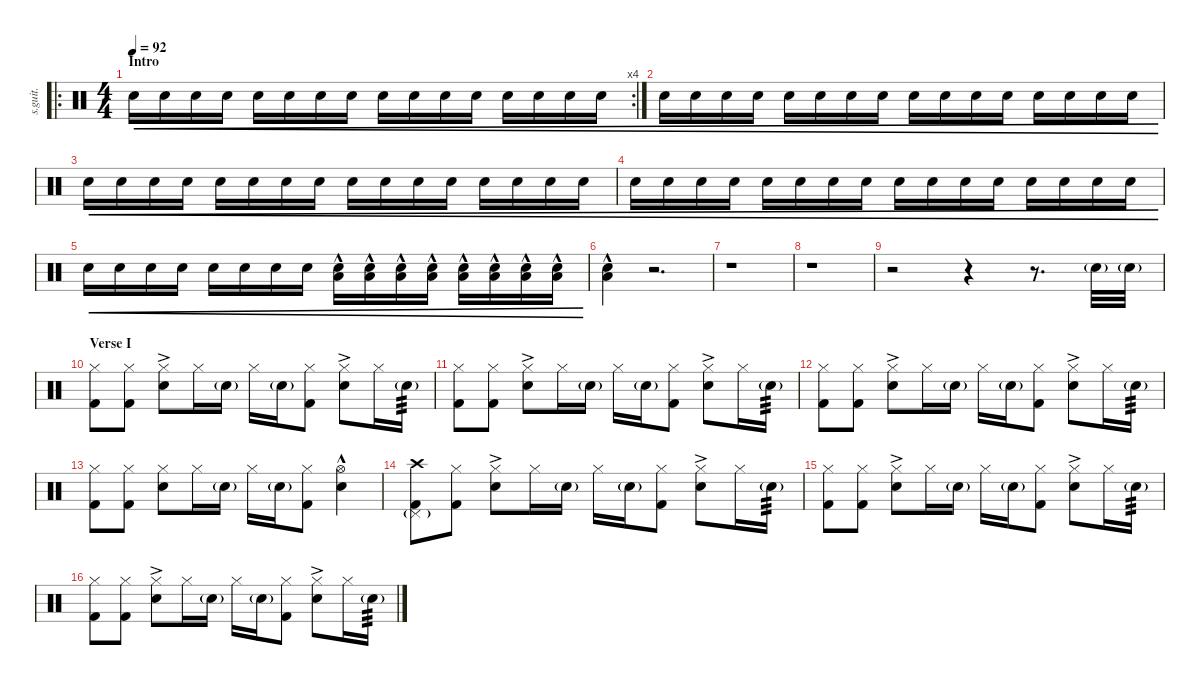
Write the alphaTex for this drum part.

\defaultSystemsLayout 4
\hideDynamics
\bracketExtendMode nobrackets
\track ("Chad Smith | Pearl Masters Series | Drums" "s.guit.") {instrument percussion}
\staff {score}
\articulation defaults
\ro
\rc 4
\ts (4 4)
\beaming (8 2 2 2 2)
\section ("" "Intro")
\tempo 92
\clef neutral
\ks c "Snare (hit) 2".16{cre dy p} "Snare (hit) 2".16{cre} "Snare (hit) 2".16{cre} "Snare (hit) 2".16{cre} "Snare (hit) 2".16{cre} "Snare (hit) 2".16{cre} "Snare (hit) 2".16{cre} "Snare (hit) 2".16{cre} "Snare (hit) 2".16{cre} "Snare (hit) 2".16{cre} "Snare (hit) 2".16{cre} "Snare (hit) 2".16{cre} "Snare (hit) 2".16{cre} "Snare (hit) 2".16{cre} "Snare (hit) 2".16{cre} "Snare (hit) 2".16{cre}
|
"Snare (hit) 2".16{cre} "Snare (hit) 2".16{cre} "Snare (hit) 2".16{cre} "Snare (hit) 2".16{cre} "Snare (hit) 2".16{cre} "Snare (hit) 2".16{cre} "Snare (hit) 2".16{cre} "Snare (hit) 2".16{cre} "Snare (hit) 2".16{cre dy mp} "Snare (hit) 2".16{cre} "Snare (hit) 2".16{cre} "Snare (hit) 2".16{cre} "Snare (hit) 2".16{cre} "Snare (hit) 2".16{cre} "Snare (hit) 2".16{cre} "Snare (hit) 2".16{cre} |
"Snare (hit) 2".16{cre} "Snare (hit) 2".16{cre} "Snare (hit) 2".16{cre} "Snare (hit) 2".16{cre} "Snare (hit) 2".16{cre dy mf} "Snare (hit) 2".16{cre} "Snare (hit) 2".16{cre} "Snare (hit) 2".16{cre} "Snare (hit) 2".16{cre} "Snare (hit) 2".16{cre} "Snare (hit) 2".16{cre} "Snare (hit) 2".16{cre} "Snare (hit) 2".16{cre dy f} "Snare (hit) 2".16{cre} "Snare (hit) 2".16{cre} "Snare (hit) 2".16{cre} |
"Snare (hit) 2".16{cre} "Snare (hit) 2".16{cre} "Snare (hit) 2".16{cre} "Snare (hit) 2".16{cre} "Snare (hit) 2".16{cre} "Snare (hit) 2".16{cre} "Snare (hit) 2".16{cre} "Snare (hit) 2".16{cre} "Snare (hit) 2".16{cre} "Snare (hit) 2".16{cre} "Snare (hit) 2".16{cre} "Snare (hit) 2".16{cre} "Snare (hit) 2".16{cre dy ff} "Snare (hit) 2".16{cre} "Snare (hit) 2".16{cre} "Snare (hit) 2".16{cre} |
"Snare (hit) 2".16{cre} "Snare (hit) 2".16{cre} "Snare (hit) 2".16{cre} "Snare (hit) 2".16{cre} "Snare (hit) 2".16{cre dy fff} "Snare (hit) 2".16{cre} "Snare (hit) 2".16{cre} "Snare (hit) 2".16{cre} ("Snare (hit) 2"{hac} "Low Floor Tom (hit)"{hac}).16{cre} ("Snare (hit) 2"{hac} "Low Floor Tom (hit)"{hac}).16{cre} ("Snare (hit) 2"{hac} "Low Floor Tom (hit)"{hac}).16{cre} ("Snare (hit) 2"{hac} "Low Floor Tom (hit)"{hac}).16{cre} ("Snare (hit) 2"{hac} "Low Floor Tom (hit)"{hac}).16{cre} ("Snare (hit) 2"{hac} "Low Floor Tom (hit)"{hac}).16{cre} ("Snare (hit) 2"{hac} "Low Floor Tom (hit)"{hac}).16{cre} ("Snare (hit) 2"{hac} "Low Floor Tom (hit)"{hac}).16{cre} |
("Snare (hit) 2"{hac} "Low Floor Tom (hit)"{hac}).4 r.2{d} |
r.1 |
r.1 |
r.2 r.4 r.8{d} "Snare (hit) 2"{g}.32 "Snare (hit) 2"{g}.32{dy f} |
\section ("" "Verse I")
("Hi-Hat (closed)" "Kick (hit) 2").8 ("Hi-Hat (closed)" "Kick (hit) 2").8 ("Hi-Hat (closed)" "Snare (hit) 2"{ac}).8 "Hi-Hat (closed)".16 "Snare (hit) 2"{g}.16 "Hi-Hat (closed)".16 "Snare (hit) 2"{g}.16 ("Hi-Hat (closed)" "Kick (hit) 2").8 ("Hi-Hat (closed)" "Snare (hit) 2"{ac}).8 "Hi-Hat (closed)".16 "Snare (hit) 2"{g}.16{tp 3} |
("Hi-Hat (closed)" "Kick (hit) 2").8 ("Hi-Hat (closed)" "Kick (hit) 2").8 ("Hi-Hat (closed)" "Snare (hit) 2"{ac}).8 "Hi-Hat (closed)".16 "Snare (hit) 2"{g}.16 "Hi-Hat (closed)".16 "Snare (hit) 2"{g}.16 ("Hi-Hat (closed)" "Kick (hit) 2").8 ("Hi-Hat (closed)" "Snare (hit) 2"{ac}).8 "Hi-Hat (closed)".16 "Snare (hit) 2"{g}.16{tp 3} |
("Hi-Hat (closed)" "Kick (hit) 2").8 ("Hi-Hat (closed)" "Kick (hit) 2").8 ("Hi-Hat (closed)" "Snare (hit) 2"{ac}).8 "Hi-Hat (closed)".16 "Snare (hit) 2"{g}.16 "Hi-Hat (closed)".16 "Snare (hit) 2"{g}.16 ("Hi-Hat (closed)" "Kick (hit) 2").8 ("Hi-Hat (closed)" "Snare (hit) 2"{ac}).8 "Hi-Hat (closed)".16 "Snare (hit) 2"{g}.16{tp 3} |
("Hi-Hat (closed)" "Kick (hit) 2").8 ("Hi-Hat (closed)" "Kick (hit) 2").8 ("Hi-Hat (closed)" "Snare (hit) 2").8 "Hi-Hat (closed)".16 "Snare (hit) 2"{g}.16 "Hi-Hat (closed)".16 "Snare (hit) 2"{g}.16 ("Hi-Hat (closed)" "Kick (hit) 2").8 ("Hi-Hat (open)" "Snare (hit) 2"{hac}).4 |
("Crash high (hit)" "Kick (hit) 2" "Pedal Hi-Hat (hit)"{g}).8 ("Hi-Hat (closed)" "Kick (hit) 2").8 ("Hi-Hat (closed)" "Snare (hit) 2"{ac}).8 "Hi-Hat (closed)".16 "Snare (hit) 2"{g}.16 "Hi-Hat (closed)".16 "Snare (hit) 2"{g}.16 ("Hi-Hat (closed)" "Kick (hit) 2").8 ("Hi-Hat (closed)" "Snare (hit) 2"{ac}).8 "Hi-Hat (closed)".16 "Snare (hit) 2"{g}.16{tp 3} |
("Hi-Hat (closed)" "Kick (hit) 2").8 ("Hi-Hat (closed)" "Kick (hit) 2").8 ("Hi-Hat (closed)" "Snare (hit) 2"{ac}).8 "Hi-Hat (closed)".16 "Snare (hit) 2"{g}.16 "Hi-Hat (closed)".16 "Snare (hit) 2"{g}.16 ("Hi-Hat (closed)" "Kick (hit) 2").8 ("Hi-Hat (closed)" "Snare (hit) 2"{ac}).8 "Hi-Hat (closed)".16 "Snare (hit) 2"{g}.16{tp 3} |
("Hi-Hat (closed)" "Kick (hit) 2").8 ("Hi-Hat (closed)" "Kick (hit) 2").8 ("Hi-Hat (closed)" "Snare (hit) 2"{ac}).8 "Hi-Hat (closed)".16 "Snare (hit) 2"{g}.16 "Hi-Hat (closed)".16 "Snare (hit) 2"{g}.16 ("Hi-Hat (closed)" "Kick (hit) 2").8 ("Hi-Hat (closed)" "Snare (hit) 2"{ac}).8 "Hi-Hat (closed)".16 "Snare (hit) 2"{g}.16{tp 3}
